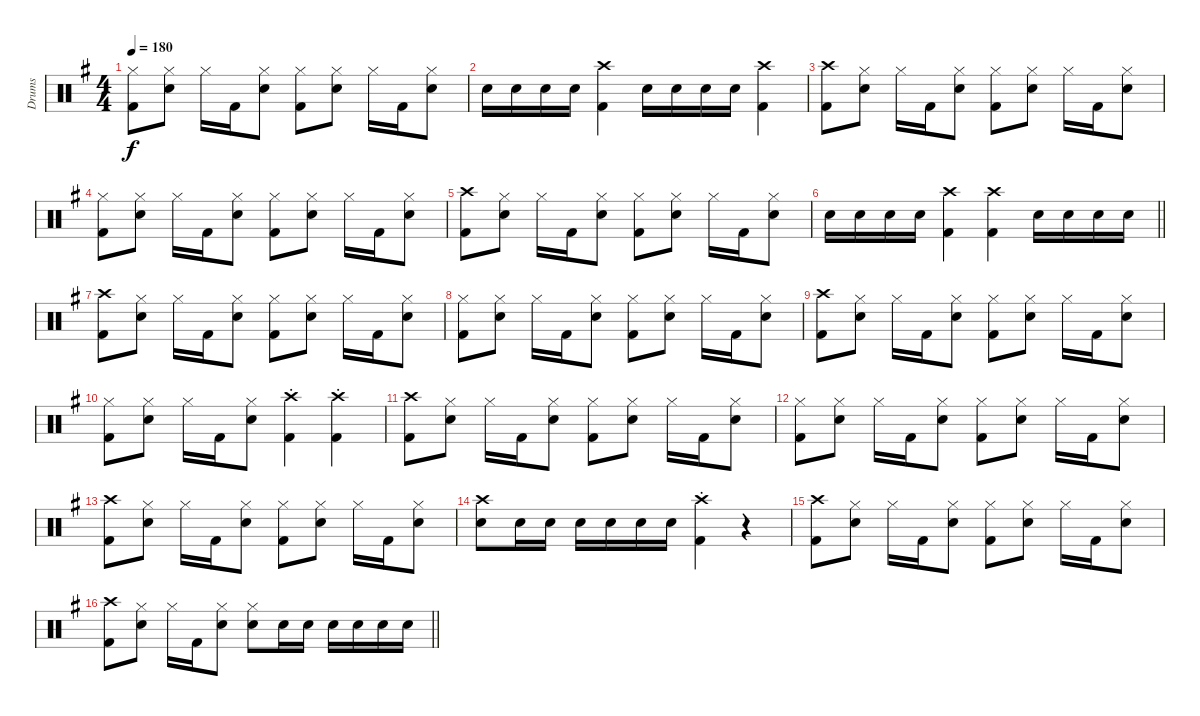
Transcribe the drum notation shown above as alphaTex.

\track ("Drums" "Drums") {instrument percussion}
\staff {score}
\articulation defaults
\ts (4 4)
\tempo 180
\clef neutral
\ks g
("Hi-Hat (closed)" "Kick (hit) 2").8{dy f} ("Hi-Hat (closed)" "Snare (hit) 2").8 "Hi-Hat (closed)".16 "Kick (hit) 2".16 ("Hi-Hat (closed)" "Snare (hit) 2").8 ("Hi-Hat (closed)" "Kick (hit) 2").8 ("Hi-Hat (closed)" "Snare (hit) 2").8 "Hi-Hat (closed)".16 "Kick (hit) 2".16 ("Hi-Hat (closed)" "Snare (hit) 2").8 |
"Snare (hit) 2".16 "Snare (hit) 2".16 "Snare (hit) 2".16 "Snare (hit) 2".16 ("Crash high (hit)" "Kick (hit) 2").4 "Snare (hit) 2".16 "Snare (hit) 2".16 "Snare (hit) 2".16 "Snare (hit) 2".16 ("Crash high (hit)" "Kick (hit) 2").4 |
("Crash high (hit)" "Kick (hit) 2").8 ("Hi-Hat (closed)" "Snare (hit) 2").8 "Hi-Hat (closed)".16 "Kick (hit) 2".16 ("Hi-Hat (closed)" "Snare (hit) 2").8 ("Hi-Hat (closed)" "Kick (hit) 2").8 ("Hi-Hat (closed)" "Snare (hit) 2").8 "Hi-Hat (closed)".16 "Kick (hit) 2".16 ("Hi-Hat (closed)" "Snare (hit) 2").8 |
("Hi-Hat (closed)" "Kick (hit) 2").8 ("Hi-Hat (closed)" "Snare (hit) 2").8 "Hi-Hat (closed)".16 "Kick (hit) 2".16 ("Hi-Hat (closed)" "Snare (hit) 2").8 ("Hi-Hat (closed)" "Kick (hit) 2").8 ("Hi-Hat (closed)" "Snare (hit) 2").8 "Hi-Hat (closed)".16 "Kick (hit) 2".16 ("Hi-Hat (closed)" "Snare (hit) 2").8 |
("Crash high (hit)" "Kick (hit) 2").8 ("Hi-Hat (closed)" "Snare (hit) 2").8 "Hi-Hat (closed)".16 "Kick (hit) 2".16 ("Hi-Hat (closed)" "Snare (hit) 2").8 ("Hi-Hat (closed)" "Kick (hit) 2").8 ("Hi-Hat (closed)" "Snare (hit) 2").8 "Hi-Hat (closed)".16 "Kick (hit) 2".16 ("Hi-Hat (closed)" "Snare (hit) 2").8 |
\barLineRight lightlight "Snare (hit) 2".16 "Snare (hit) 2".16 "Snare (hit) 2".16 "Snare (hit) 2".16
("Crash high (hit)" "Kick (hit) 2").4 ("Crash high (hit)" "Kick (hit) 2").4 "Snare (hit) 2".16 "Snare (hit) 2".16 "Snare (hit) 2".16 "Snare (hit) 2".16 |
("Crash high (hit)" "Kick (hit) 2").8 ("Hi-Hat (closed)" "Snare (hit) 2").8 "Hi-Hat (closed)".16 "Kick (hit) 2".16 ("Hi-Hat (closed)" "Snare (hit) 2").8 ("Hi-Hat (closed)" "Kick (hit) 2").8 ("Hi-Hat (closed)" "Snare (hit) 2").8 "Hi-Hat (closed)".16 "Kick (hit) 2".16 ("Hi-Hat (closed)" "Snare (hit) 2").8 |
("Hi-Hat (closed)" "Kick (hit) 2").8 ("Hi-Hat (closed)" "Snare (hit) 2").8 "Hi-Hat (closed)".16 "Kick (hit) 2".16 ("Hi-Hat (closed)" "Snare (hit) 2").8 ("Hi-Hat (closed)" "Kick (hit) 2").8 ("Hi-Hat (closed)" "Snare (hit) 2").8 "Hi-Hat (closed)".16 "Kick (hit) 2".16 ("Hi-Hat (closed)" "Snare (hit) 2").8 |
("Crash high (hit)" "Kick (hit) 2").8 ("Hi-Hat (closed)" "Snare (hit) 2").8 "Hi-Hat (closed)".16 "Kick (hit) 2".16 ("Hi-Hat (closed)" "Snare (hit) 2").8 ("Hi-Hat (closed)" "Kick (hit) 2").8 ("Hi-Hat (closed)" "Snare (hit) 2").8 "Hi-Hat (closed)".16 "Kick (hit) 2".16 ("Hi-Hat (closed)" "Snare (hit) 2").8 |
("Hi-Hat (closed)" "Kick (hit) 2").8 ("Hi-Hat (closed)" "Snare (hit) 2").8 "Hi-Hat (closed)".16 "Kick (hit) 2".16 ("Hi-Hat (closed)" "Snare (hit) 2").8 ("Crash high (hit)"{st} "Kick (hit) 2").4 ("Crash high (hit)"{st} "Kick (hit) 2").4 |
("Crash high (hit)" "Kick (hit) 2").8 ("Hi-Hat (closed)" "Snare (hit) 2").8 "Hi-Hat (closed)".16 "Kick (hit) 2".16 ("Hi-Hat (closed)" "Snare (hit) 2").8 ("Hi-Hat (closed)" "Kick (hit) 2").8 ("Hi-Hat (closed)" "Snare (hit) 2").8 "Hi-Hat (closed)".16 "Kick (hit) 2".16 ("Hi-Hat (closed)" "Snare (hit) 2").8 |
("Hi-Hat (closed)" "Kick (hit) 2").8 ("Hi-Hat (closed)" "Snare (hit) 2").8 "Hi-Hat (closed)".16 "Kick (hit) 2".16 ("Hi-Hat (closed)" "Snare (hit) 2").8 ("Hi-Hat (closed)" "Kick (hit) 2").8 ("Hi-Hat (closed)" "Snare (hit) 2").8 "Hi-Hat (closed)".16 "Kick (hit) 2".16 ("Hi-Hat (closed)" "Snare (hit) 2").8 |
("Crash high (hit)" "Kick (hit) 2").8 ("Hi-Hat (closed)" "Snare (hit) 2").8 "Hi-Hat (closed)".16 "Kick (hit) 2".16 ("Hi-Hat (closed)" "Snare (hit) 2").8 ("Hi-Hat (closed)" "Kick (hit) 2").8 ("Hi-Hat (closed)" "Snare (hit) 2").8 "Hi-Hat (closed)".16 "Kick (hit) 2".16 ("Hi-Hat (closed)" "Snare (hit) 2").8 |
("Crash high (hit)" "Snare (hit) 2").8 "Snare (hit) 2".16 "Snare (hit) 2".16 "Snare (hit) 2".16 "Snare (hit) 2".16 "Snare (hit) 2".16 "Snare (hit) 2".16 ("Crash high (hit)"{st} "Kick (hit) 2").4 r.4 |
("Crash high (hit)" "Kick (hit) 2").8 ("Hi-Hat (closed)" "Snare (hit) 2").8 "Hi-Hat (closed)".16 "Kick (hit) 2".16 ("Hi-Hat (closed)" "Snare (hit) 2").8 ("Hi-Hat (closed)" "Kick (hit) 2").8 ("Hi-Hat (closed)" "Snare (hit) 2").8 "Hi-Hat (closed)".16 "Kick (hit) 2".16 ("Hi-Hat (closed)" "Snare (hit) 2").8 |
\barLineRight lightlight
("Crash high (hit)" "Kick (hit) 2").8 ("Hi-Hat (closed)" "Snare (hit) 2").8 "Hi-Hat (closed)".16 "Kick (hit) 2".16 ("Hi-Hat (closed)" "Snare (hit) 2").8 ("Hi-Hat (closed)" "Snare (hit) 2").8 "Snare (hit) 2".16 "Snare (hit) 2".16 "Snare (hit) 2".16 "Snare (hit) 2".16 "Snare (hit) 2".16 "Snare (hit) 2".16
